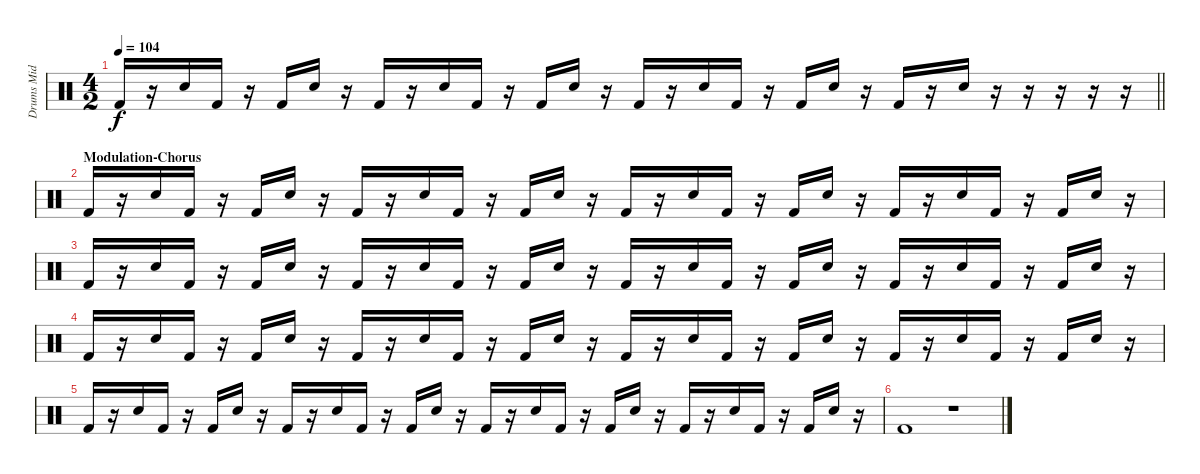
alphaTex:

\track ("Drums Mid" "Drums Mid") {instrument percussion}
\staff {score}
\articulation defaults
\ts (4 2)
\tempo 104
\clef neutral
\barLineRight lightlight
\ks c "Kick (hit) 2".16{dy f}
r.16 "Snare (hit) 2".16 "Kick (hit) 2".16 r.16 "Kick (hit) 2".16 "Snare (hit) 2".16 r.16 "Kick (hit) 2".16 r.16 "Snare (hit) 2".16 "Kick (hit) 2".16 r.16 "Kick (hit) 2".16 "Snare (hit) 2".16 r.16 "Kick (hit) 2".16 r.16 "Snare (hit) 2".16 "Kick (hit) 2".16 r.16 "Kick (hit) 2".16 "Snare (hit) 2".16 r.16 "Kick (hit) 2".16 r.16 "Snare (hit) 2".16 r.16 r.16 r.16 r.16 r.16 |
\section ("" "Modulation-Chorus")
"Kick (hit) 2".16 r.16 "Snare (hit) 2".16 "Kick (hit) 2".16 r.16 "Kick (hit) 2".16 "Snare (hit) 2".16 r.16 "Kick (hit) 2".16 r.16 "Snare (hit) 2".16 "Kick (hit) 2".16 r.16 "Kick (hit) 2".16 "Snare (hit) 2".16 r.16 "Kick (hit) 2".16 r.16 "Snare (hit) 2".16 "Kick (hit) 2".16 r.16 "Kick (hit) 2".16 "Snare (hit) 2".16 r.16 "Kick (hit) 2".16 r.16 "Snare (hit) 2".16 "Kick (hit) 2".16 r.16 "Kick (hit) 2".16 "Snare (hit) 2".16 r.16 |
"Kick (hit) 2".16 r.16 "Snare (hit) 2".16 "Kick (hit) 2".16 r.16 "Kick (hit) 2".16 "Snare (hit) 2".16 r.16 "Kick (hit) 2".16 r.16 "Snare (hit) 2".16 "Kick (hit) 2".16 r.16 "Kick (hit) 2".16 "Snare (hit) 2".16 r.16 "Kick (hit) 2".16 r.16 "Snare (hit) 2".16 "Kick (hit) 2".16 r.16 "Kick (hit) 2".16 "Snare (hit) 2".16 r.16 "Kick (hit) 2".16 r.16 "Snare (hit) 2".16 "Kick (hit) 2".16 r.16 "Kick (hit) 2".16 "Snare (hit) 2".16 r.16 |
"Kick (hit) 2".16 r.16 "Snare (hit) 2".16 "Kick (hit) 2".16 r.16 "Kick (hit) 2".16 "Snare (hit) 2".16 r.16 "Kick (hit) 2".16 r.16 "Snare (hit) 2".16 "Kick (hit) 2".16 r.16 "Kick (hit) 2".16 "Snare (hit) 2".16 r.16 "Kick (hit) 2".16 r.16 "Snare (hit) 2".16 "Kick (hit) 2".16 r.16 "Kick (hit) 2".16 "Snare (hit) 2".16 r.16 "Kick (hit) 2".16 r.16 "Snare (hit) 2".16 "Kick (hit) 2".16 r.16 "Kick (hit) 2".16 "Snare (hit) 2".16 r.16 |
"Kick (hit) 2".16 r.16 "Snare (hit) 2".16 "Kick (hit) 2".16 r.16 "Kick (hit) 2".16 "Snare (hit) 2".16 r.16 "Kick (hit) 2".16 r.16 "Snare (hit) 2".16 "Kick (hit) 2".16 r.16 "Kick (hit) 2".16 "Snare (hit) 2".16 r.16 "Kick (hit) 2".16 r.16 "Snare (hit) 2".16 "Kick (hit) 2".16 r.16 "Kick (hit) 2".16 "Snare (hit) 2".16 r.16 "Kick (hit) 2".16 r.16 "Snare (hit) 2".16 "Kick (hit) 2".16 r.16 "Kick (hit) 2".16 "Snare (hit) 2".16 r.16 |
"Kick (hit) 2".1 r.1
